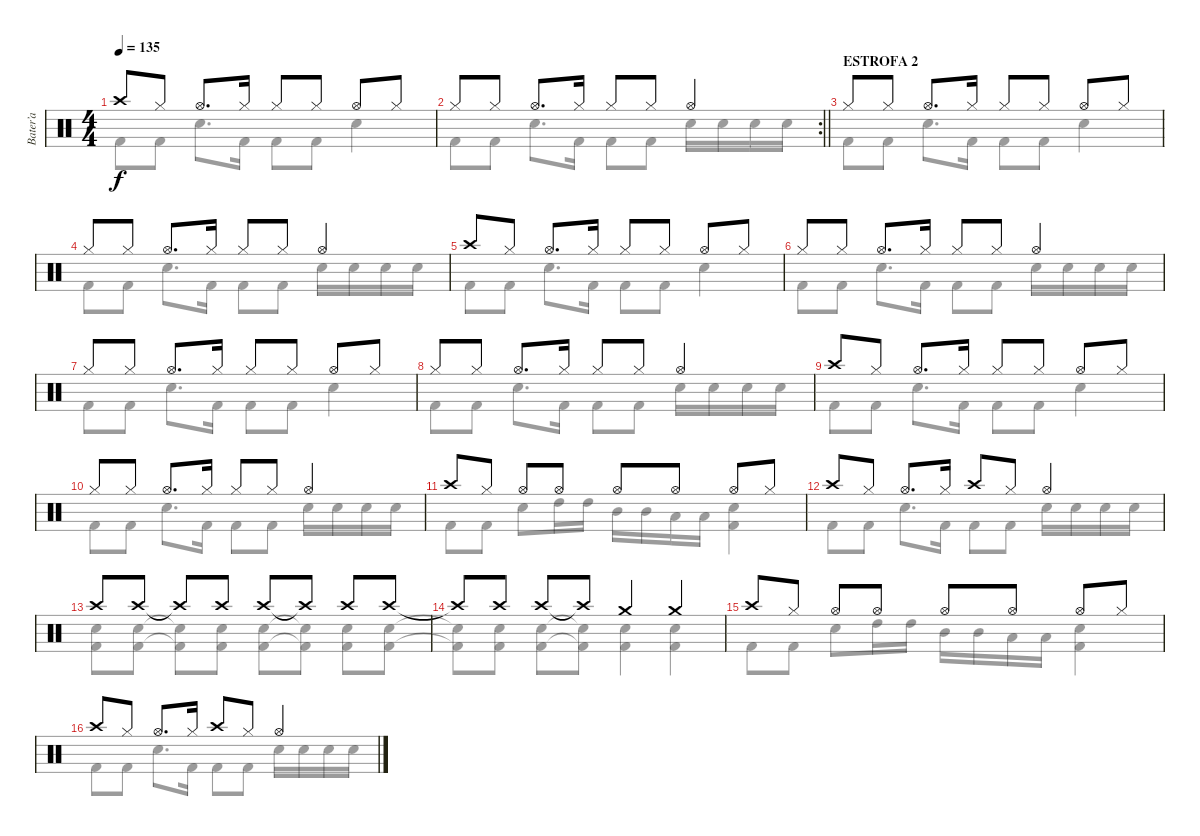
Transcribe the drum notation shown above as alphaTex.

\track ("Bater’a" "Bater’a") {instrument percussion}
\staff {score}
\articulation defaults
\voice
\ts (4 4)
\tempo 135
\clef neutral
\ks c "Crash high (hit)".8{dy f} "Hi-Hat (closed)".8 "Hi-Hat (open)".8{d} "Hi-Hat (closed)".16 "Hi-Hat (closed)".8 "Hi-Hat (closed)".8 "Hi-Hat (open)".8 "Hi-Hat (closed)".8
|
\rc 2
\barLineRight lightlight "Hi-Hat (closed)".8 "Hi-Hat (closed)".8 "Hi-Hat (open)".8{d} "Hi-Hat (closed)".16 "Hi-Hat (closed)".8 "Hi-Hat (closed)".8 "Hi-Hat (open)".4
|
\section ("" "ESTROFA 2")
"Hi-Hat (closed)".8 "Hi-Hat (closed)".8 "Hi-Hat (open)".8{d} "Hi-Hat (closed)".16 "Hi-Hat (closed)".8 "Hi-Hat (closed)".8 "Hi-Hat (open)".8 "Hi-Hat (closed)".8 |
"Hi-Hat (closed)".8 "Hi-Hat (closed)".8 "Hi-Hat (open)".8{d} "Hi-Hat (closed)".16 "Hi-Hat (closed)".8 "Hi-Hat (closed)".8 "Hi-Hat (open)".4 |
"Crash high (hit)".8 "Hi-Hat (closed)".8 "Hi-Hat (open)".8{d} "Hi-Hat (closed)".16 "Hi-Hat (closed)".8 "Hi-Hat (closed)".8 "Hi-Hat (open)".8 "Hi-Hat (closed)".8 |
"Hi-Hat (closed)".8 "Hi-Hat (closed)".8 "Hi-Hat (open)".8{d} "Hi-Hat (closed)".16 "Hi-Hat (closed)".8 "Hi-Hat (closed)".8 "Hi-Hat (open)".4 |
"Hi-Hat (closed)".8 "Hi-Hat (closed)".8 "Hi-Hat (open)".8{d} "Hi-Hat (closed)".16 "Hi-Hat (closed)".8 "Hi-Hat (closed)".8 "Hi-Hat (open)".8 "Hi-Hat (closed)".8 |
"Hi-Hat (closed)".8 "Hi-Hat (closed)".8 "Hi-Hat (open)".8{d} "Hi-Hat (closed)".16 "Hi-Hat (closed)".8 "Hi-Hat (closed)".8 "Hi-Hat (open)".4 |
"Crash high (hit)".8 "Hi-Hat (closed)".8 "Hi-Hat (open)".8{d} "Hi-Hat (closed)".16 "Hi-Hat (closed)".8 "Hi-Hat (closed)".8 "Hi-Hat (open)".8 "Hi-Hat (closed)".8 |
"Hi-Hat (closed)".8 "Hi-Hat (closed)".8 "Hi-Hat (open)".8{d} "Hi-Hat (closed)".16 "Hi-Hat (closed)".8 "Hi-Hat (closed)".8 "Hi-Hat (open)".4 |
"Crash high (hit)".8 "Hi-Hat (closed)".8 "Hi-Hat (open)".8 "Hi-Hat (open)".8 "Hi-Hat (open)".8 "Hi-Hat (open)".8 "Hi-Hat (open)".8 "Hi-Hat (closed)".8 |
"Crash high (hit)".8 "Hi-Hat (closed)".8 "Hi-Hat (open)".8{d} "Hi-Hat (closed)".16 "Crash high (hit)".8 "Hi-Hat (closed)".8 "Hi-Hat (open)".4 |
"Crash high (hit)".8 "Crash high (hit)".8 "Crash high (hit)"{t}.8 "Crash high (hit)".8 "Crash high (hit)".8 "Crash high (hit)"{t}.8 "Crash high (hit)".8 "Crash high (hit)".8 |
"Crash high (hit)"{t}.8 "Crash high (hit)".8 "Crash high (hit)".8 "Crash high (hit)"{t}.8 "Crash medium (hit)".4 "Crash medium (hit)".4 |
"Crash high (hit)".8 "Hi-Hat (closed)".8 "Hi-Hat (open)".8 "Hi-Hat (open)".8 "Hi-Hat (open)".8 "Hi-Hat (open)".8 "Hi-Hat (open)".8 "Hi-Hat (closed)".8 |
"Crash high (hit)".8 "Hi-Hat (closed)".8 "Hi-Hat (open)".8{d} "Hi-Hat (closed)".16 "Crash high (hit)".8 "Hi-Hat (closed)".8 "Hi-Hat (open)".4
\voice
\clef neutral
\ottava regular
\simile none
\ks c "Kick (hit) 2".8{dy f} "Kick (hit) 2".8 "Snare (hit) 2".8{d} "Kick (hit) 2".16 "Kick (hit) 2".8 "Kick (hit) 2".8 "Snare (hit) 2".4
|
\barLineRight lightlight "Kick (hit) 2".8 "Kick (hit) 2".8 "Snare (hit) 2".8{d} "Kick (hit) 2".16 "Kick (hit) 2".8 "Kick (hit) 2".8 "Snare (hit) 2".16 "Snare (hit) 2".16 "Snare (hit) 2".16 "Snare (hit) 2".16
|
"Kick (hit) 2".8 "Kick (hit) 2".8 "Snare (hit) 2".8{d} "Kick (hit) 2".16 "Kick (hit) 2".8 "Kick (hit) 2".8 "Snare (hit) 2".4 |
"Kick (hit) 2".8 "Kick (hit) 2".8 "Snare (hit) 2".8{d} "Kick (hit) 2".16 "Kick (hit) 2".8 "Kick (hit) 2".8 "Snare (hit) 2".16 "Snare (hit) 2".16 "Snare (hit) 2".16 "Snare (hit) 2".16 |
"Kick (hit) 2".8 "Kick (hit) 2".8 "Snare (hit) 2".8{d} "Kick (hit) 2".16 "Kick (hit) 2".8 "Kick (hit) 2".8 "Snare (hit) 2".4 |
"Kick (hit) 2".8 "Kick (hit) 2".8 "Snare (hit) 2".8{d} "Kick (hit) 2".16 "Kick (hit) 2".8 "Kick (hit) 2".8 "Snare (hit) 2".16 "Snare (hit) 2".16 "Snare (hit) 2".16 "Snare (hit) 2".16 |
"Kick (hit) 2".8 "Kick (hit) 2".8 "Snare (hit) 2".8{d} "Kick (hit) 2".16 "Kick (hit) 2".8 "Kick (hit) 2".8 "Snare (hit) 2".4 |
"Kick (hit) 2".8 "Kick (hit) 2".8 "Snare (hit) 2".8{d} "Kick (hit) 2".16 "Kick (hit) 2".8 "Kick (hit) 2".8 "Snare (hit) 2".16 "Snare (hit) 2".16 "Snare (hit) 2".16 "Snare (hit) 2".16 |
"Kick (hit) 2".8 "Kick (hit) 2".8 "Snare (hit) 2".8{d} "Kick (hit) 2".16 "Kick (hit) 2".8 "Kick (hit) 2".8 "Snare (hit) 2".4 |
"Kick (hit) 2".8 "Kick (hit) 2".8 "Snare (hit) 2".8{d} "Kick (hit) 2".16 "Kick (hit) 2".8 "Kick (hit) 2".8 "Snare (hit) 2".16 "Snare (hit) 2".16 "Snare (hit) 2".16 "Snare (hit) 2".16 |
"Kick (hit) 2".8 "Kick (hit) 2".8 "Snare (hit) 2".8 "High Tom (hit)".16 "High Tom (hit)".16 "Mid Tom (hit)".16 "Mid Tom (hit)".16 "Low Tom (hit)".16 "Low Tom (hit)".16 ("Snare (hit) 2" "Kick (hit) 2").4 |
"Kick (hit) 2".8 "Kick (hit) 2".8 "Snare (hit) 2".8{d} "Kick (hit) 2".16 "Kick (hit) 2".8 "Kick (hit) 2".8 "Snare (hit) 2".16 "Snare (hit) 2".16 "Snare (hit) 2".16 "Snare (hit) 2".16 |
("Snare (hit) 2" "Kick (hit) 2").8 ("Snare (hit) 2" "Kick (hit) 2").8 ("Snare (hit) 2"{t} "Kick (hit) 2"{t}).8 ("Snare (hit) 2" "Kick (hit) 2").8 ("Snare (hit) 2" "Kick (hit) 2").8 ("Snare (hit) 2"{t} "Kick (hit) 2"{t}).8 ("Snare (hit) 2" "Kick (hit) 2").8 ("Snare (hit) 2" "Kick (hit) 2").8 |
("Snare (hit) 2"{t} "Kick (hit) 2"{t}).8 ("Snare (hit) 2" "Kick (hit) 2").8 ("Snare (hit) 2" "Kick (hit) 2").8 ("Snare (hit) 2"{t} "Kick (hit) 2"{t}).8 ("Snare (hit) 2" "Kick (hit) 2").4 ("Snare (hit) 2" "Kick (hit) 2").4 |
"Kick (hit) 2".8 "Kick (hit) 2".8 "Snare (hit) 2".8 "High Tom (hit)".16 "High Tom (hit)".16 "Mid Tom (hit)".16 "Mid Tom (hit)".16 "Low Tom (hit)".16 "Low Tom (hit)".16 ("Snare (hit) 2" "Kick (hit) 2").4 |
"Kick (hit) 2".8 "Kick (hit) 2".8 "Snare (hit) 2".8{d} "Kick (hit) 2".16 "Kick (hit) 2".8 "Kick (hit) 2".8 "Snare (hit) 2".16 "Snare (hit) 2".16 "Snare (hit) 2".16 "Snare (hit) 2".16
